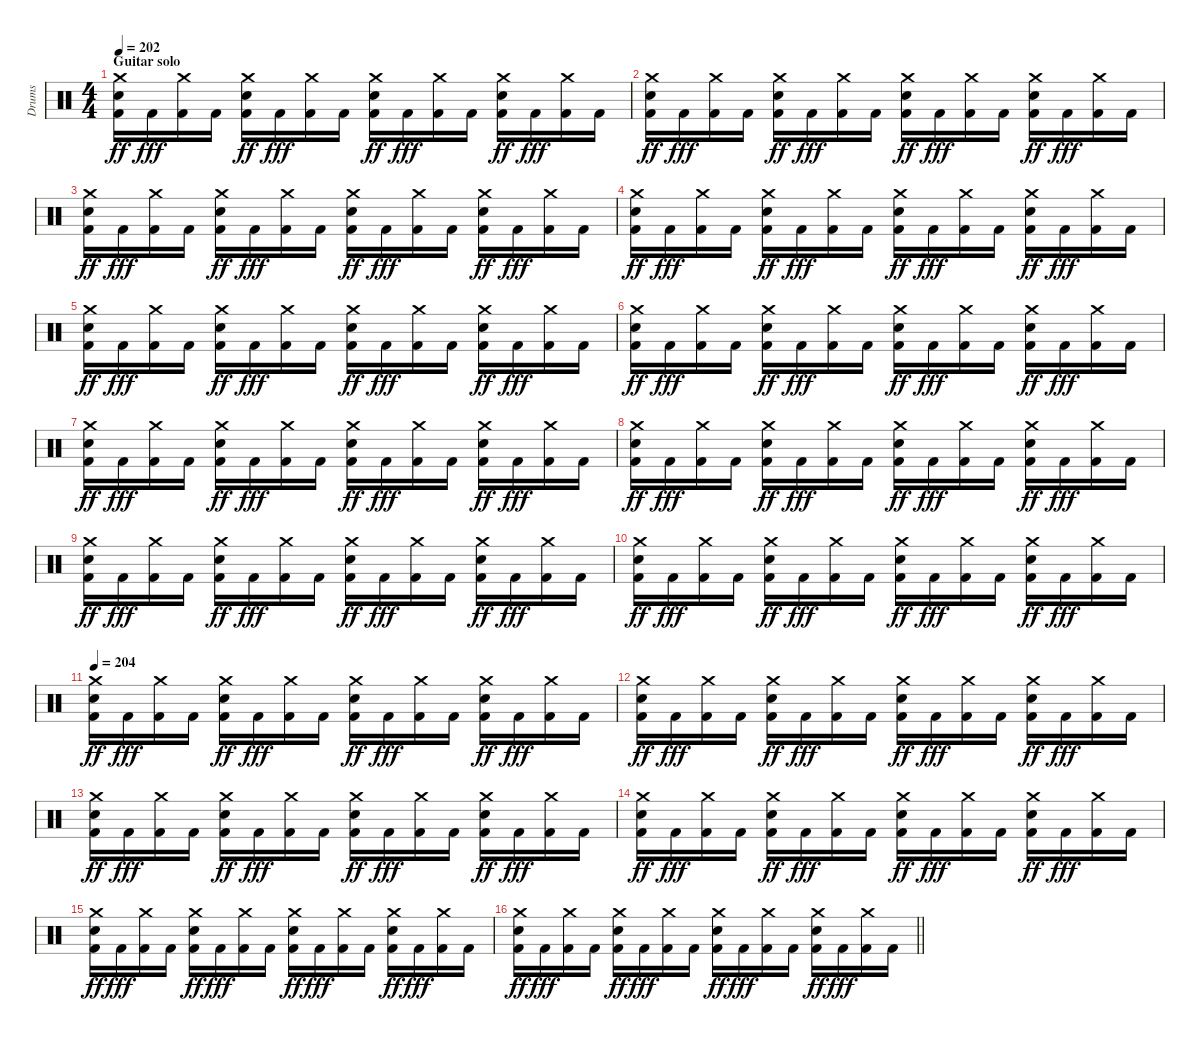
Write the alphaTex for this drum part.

\track ("Drums" "Drums") {instrument percussion}
\staff {score}
\articulation defaults
\ts (4 4)
\section ("" "Guitar solo")
\tempo 202
\clef neutral
\ks c
("Kick (hit) 2" "Snare (hit) 2" "Crash medium (hit)").16{dy ff} "Kick (hit) 2".16{dy fff} ("Kick (hit) 2" "Crash medium (hit)").16 "Kick (hit) 2".16 ("Kick (hit) 2" "Snare (hit) 2" "Crash medium (hit)").16{dy ff} "Kick (hit) 2".16{dy fff} ("Kick (hit) 2" "Crash medium (hit)").16 "Kick (hit) 2".16 ("Kick (hit) 2" "Snare (hit) 2" "Crash medium (hit)").16{dy ff} "Kick (hit) 2".16{dy fff} ("Kick (hit) 2" "Crash medium (hit)").16 "Kick (hit) 2".16 ("Kick (hit) 2" "Snare (hit) 2" "Crash medium (hit)").16{dy ff} "Kick (hit) 2".16{dy fff} ("Kick (hit) 2" "Crash medium (hit)").16 "Kick (hit) 2".16 |
("Kick (hit) 2" "Snare (hit) 2" "Crash medium (hit)").16{dy ff} "Kick (hit) 2".16{dy fff} ("Kick (hit) 2" "Crash medium (hit)").16 "Kick (hit) 2".16 ("Kick (hit) 2" "Snare (hit) 2" "Crash medium (hit)").16{dy ff} "Kick (hit) 2".16{dy fff} ("Kick (hit) 2" "Crash medium (hit)").16 "Kick (hit) 2".16 ("Kick (hit) 2" "Snare (hit) 2" "Crash medium (hit)").16{dy ff} "Kick (hit) 2".16{dy fff} ("Kick (hit) 2" "Crash medium (hit)").16 "Kick (hit) 2".16 ("Kick (hit) 2" "Snare (hit) 2" "Crash medium (hit)").16{dy ff} "Kick (hit) 2".16{dy fff} ("Kick (hit) 2" "Crash medium (hit)").16 "Kick (hit) 2".16 |
("Kick (hit) 2" "Snare (hit) 2" "Crash medium (hit)").16{dy ff} "Kick (hit) 2".16{dy fff} ("Kick (hit) 2" "Crash medium (hit)").16 "Kick (hit) 2".16 ("Kick (hit) 2" "Snare (hit) 2" "Crash medium (hit)").16{dy ff} "Kick (hit) 2".16{dy fff} ("Kick (hit) 2" "Crash medium (hit)").16 "Kick (hit) 2".16 ("Kick (hit) 2" "Snare (hit) 2" "Crash medium (hit)").16{dy ff} "Kick (hit) 2".16{dy fff} ("Kick (hit) 2" "Crash medium (hit)").16 "Kick (hit) 2".16 ("Kick (hit) 2" "Snare (hit) 2" "Crash medium (hit)").16{dy ff} "Kick (hit) 2".16{dy fff} ("Kick (hit) 2" "Crash medium (hit)").16 "Kick (hit) 2".16 |
("Kick (hit) 2" "Snare (hit) 2" "Crash medium (hit)").16{dy ff} "Kick (hit) 2".16{dy fff} ("Kick (hit) 2" "Crash medium (hit)").16 "Kick (hit) 2".16 ("Kick (hit) 2" "Snare (hit) 2" "Crash medium (hit)").16{dy ff} "Kick (hit) 2".16{dy fff} ("Kick (hit) 2" "Crash medium (hit)").16 "Kick (hit) 2".16 ("Kick (hit) 2" "Snare (hit) 2" "Crash medium (hit)").16{dy ff} "Kick (hit) 2".16{dy fff} ("Kick (hit) 2" "Crash medium (hit)").16 "Kick (hit) 2".16 ("Kick (hit) 2" "Snare (hit) 2" "Crash medium (hit)").16{dy ff} "Kick (hit) 2".16{dy fff} ("Kick (hit) 2" "Crash medium (hit)").16 "Kick (hit) 2".16 |
("Kick (hit) 2" "Snare (hit) 2" "Crash medium (hit)").16{dy ff} "Kick (hit) 2".16{dy fff} ("Kick (hit) 2" "Crash medium (hit)").16 "Kick (hit) 2".16 ("Kick (hit) 2" "Snare (hit) 2" "Crash medium (hit)").16{dy ff} "Kick (hit) 2".16{dy fff} ("Kick (hit) 2" "Crash medium (hit)").16 "Kick (hit) 2".16 ("Kick (hit) 2" "Snare (hit) 2" "Crash medium (hit)").16{dy ff} "Kick (hit) 2".16{dy fff} ("Kick (hit) 2" "Crash medium (hit)").16 "Kick (hit) 2".16 ("Kick (hit) 2" "Snare (hit) 2" "Crash medium (hit)").16{dy ff} "Kick (hit) 2".16{dy fff} ("Kick (hit) 2" "Crash medium (hit)").16 "Kick (hit) 2".16 |
("Kick (hit) 2" "Snare (hit) 2" "Crash medium (hit)").16{dy ff} "Kick (hit) 2".16{dy fff} ("Kick (hit) 2" "Crash medium (hit)").16 "Kick (hit) 2".16 ("Kick (hit) 2" "Snare (hit) 2" "Crash medium (hit)").16{dy ff} "Kick (hit) 2".16{dy fff} ("Kick (hit) 2" "Crash medium (hit)").16 "Kick (hit) 2".16 ("Kick (hit) 2" "Snare (hit) 2" "Crash medium (hit)").16{dy ff} "Kick (hit) 2".16{dy fff} ("Kick (hit) 2" "Crash medium (hit)").16 "Kick (hit) 2".16 ("Kick (hit) 2" "Snare (hit) 2" "Crash medium (hit)").16{dy ff} "Kick (hit) 2".16{dy fff} ("Kick (hit) 2" "Crash medium (hit)").16 "Kick (hit) 2".16 |
("Kick (hit) 2" "Snare (hit) 2" "Crash medium (hit)").16{dy ff} "Kick (hit) 2".16{dy fff} ("Kick (hit) 2" "Crash medium (hit)").16 "Kick (hit) 2".16 ("Kick (hit) 2" "Snare (hit) 2" "Crash medium (hit)").16{dy ff} "Kick (hit) 2".16{dy fff} ("Kick (hit) 2" "Crash medium (hit)").16 "Kick (hit) 2".16 ("Kick (hit) 2" "Snare (hit) 2" "Crash medium (hit)").16{dy ff} "Kick (hit) 2".16{dy fff} ("Kick (hit) 2" "Crash medium (hit)").16 "Kick (hit) 2".16 ("Kick (hit) 2" "Snare (hit) 2" "Crash medium (hit)").16{dy ff} "Kick (hit) 2".16{dy fff} ("Kick (hit) 2" "Crash medium (hit)").16 "Kick (hit) 2".16 |
("Kick (hit) 2" "Snare (hit) 2" "Crash medium (hit)").16{dy ff} "Kick (hit) 2".16{dy fff} ("Kick (hit) 2" "Crash medium (hit)").16 "Kick (hit) 2".16 ("Kick (hit) 2" "Snare (hit) 2" "Crash medium (hit)").16{dy ff} "Kick (hit) 2".16{dy fff} ("Kick (hit) 2" "Crash medium (hit)").16 "Kick (hit) 2".16 ("Kick (hit) 2" "Snare (hit) 2" "Crash medium (hit)").16{dy ff} "Kick (hit) 2".16{dy fff} ("Kick (hit) 2" "Crash medium (hit)").16 "Kick (hit) 2".16 ("Kick (hit) 2" "Snare (hit) 2" "Crash medium (hit)").16{dy ff} "Kick (hit) 2".16{dy fff} ("Kick (hit) 2" "Crash medium (hit)").16 "Kick (hit) 2".16 |
("Kick (hit) 2" "Snare (hit) 2" "Crash medium (hit)").16{dy ff} "Kick (hit) 2".16{dy fff} ("Kick (hit) 2" "Crash medium (hit)").16 "Kick (hit) 2".16 ("Kick (hit) 2" "Snare (hit) 2" "Crash medium (hit)").16{dy ff} "Kick (hit) 2".16{dy fff} ("Kick (hit) 2" "Crash medium (hit)").16 "Kick (hit) 2".16 ("Kick (hit) 2" "Snare (hit) 2" "Crash medium (hit)").16{dy ff} "Kick (hit) 2".16{dy fff} ("Kick (hit) 2" "Crash medium (hit)").16 "Kick (hit) 2".16 ("Kick (hit) 2" "Snare (hit) 2" "Crash medium (hit)").16{dy ff} "Kick (hit) 2".16{dy fff} ("Kick (hit) 2" "Crash medium (hit)").16 "Kick (hit) 2".16 |
("Kick (hit) 2" "Snare (hit) 2" "Crash medium (hit)").16{dy ff} "Kick (hit) 2".16{dy fff} ("Kick (hit) 2" "Crash medium (hit)").16 "Kick (hit) 2".16 ("Kick (hit) 2" "Snare (hit) 2" "Crash medium (hit)").16{dy ff} "Kick (hit) 2".16{dy fff} ("Kick (hit) 2" "Crash medium (hit)").16 "Kick (hit) 2".16 ("Kick (hit) 2" "Snare (hit) 2" "Crash medium (hit)").16{dy ff} "Kick (hit) 2".16{dy fff} ("Kick (hit) 2" "Crash medium (hit)").16 "Kick (hit) 2".16 ("Kick (hit) 2" "Snare (hit) 2" "Crash medium (hit)").16{dy ff} "Kick (hit) 2".16{dy fff} ("Kick (hit) 2" "Crash medium (hit)").16 "Kick (hit) 2".16 |
\tempo 204
("Kick (hit) 2" "Snare (hit) 2" "Crash medium (hit)").16{dy ff} "Kick (hit) 2".16{dy fff} ("Kick (hit) 2" "Crash medium (hit)").16 "Kick (hit) 2".16 ("Kick (hit) 2" "Snare (hit) 2" "Crash medium (hit)").16{dy ff} "Kick (hit) 2".16{dy fff} ("Kick (hit) 2" "Crash medium (hit)").16 "Kick (hit) 2".16 ("Kick (hit) 2" "Snare (hit) 2" "Crash medium (hit)").16{dy ff} "Kick (hit) 2".16{dy fff} ("Kick (hit) 2" "Crash medium (hit)").16 "Kick (hit) 2".16 ("Kick (hit) 2" "Snare (hit) 2" "Crash medium (hit)").16{dy ff} "Kick (hit) 2".16{dy fff} ("Kick (hit) 2" "Crash medium (hit)").16 "Kick (hit) 2".16 |
("Kick (hit) 2" "Snare (hit) 2" "Crash medium (hit)").16{dy ff} "Kick (hit) 2".16{dy fff} ("Kick (hit) 2" "Crash medium (hit)").16 "Kick (hit) 2".16 ("Kick (hit) 2" "Snare (hit) 2" "Crash medium (hit)").16{dy ff} "Kick (hit) 2".16{dy fff} ("Kick (hit) 2" "Crash medium (hit)").16 "Kick (hit) 2".16 ("Kick (hit) 2" "Snare (hit) 2" "Crash medium (hit)").16{dy ff} "Kick (hit) 2".16{dy fff} ("Kick (hit) 2" "Crash medium (hit)").16 "Kick (hit) 2".16 ("Kick (hit) 2" "Snare (hit) 2" "Crash medium (hit)").16{dy ff} "Kick (hit) 2".16{dy fff} ("Kick (hit) 2" "Crash medium (hit)").16 "Kick (hit) 2".16 |
("Kick (hit) 2" "Snare (hit) 2" "Crash medium (hit)").16{dy ff} "Kick (hit) 2".16{dy fff} ("Kick (hit) 2" "Crash medium (hit)").16 "Kick (hit) 2".16 ("Kick (hit) 2" "Snare (hit) 2" "Crash medium (hit)").16{dy ff} "Kick (hit) 2".16{dy fff} ("Kick (hit) 2" "Crash medium (hit)").16 "Kick (hit) 2".16 ("Kick (hit) 2" "Snare (hit) 2" "Crash medium (hit)").16{dy ff} "Kick (hit) 2".16{dy fff} ("Kick (hit) 2" "Crash medium (hit)").16 "Kick (hit) 2".16 ("Kick (hit) 2" "Snare (hit) 2" "Crash medium (hit)").16{dy ff} "Kick (hit) 2".16{dy fff} ("Kick (hit) 2" "Crash medium (hit)").16 "Kick (hit) 2".16 |
("Kick (hit) 2" "Snare (hit) 2" "Crash medium (hit)").16{dy ff} "Kick (hit) 2".16{dy fff} ("Kick (hit) 2" "Crash medium (hit)").16 "Kick (hit) 2".16 ("Kick (hit) 2" "Snare (hit) 2" "Crash medium (hit)").16{dy ff} "Kick (hit) 2".16{dy fff} ("Kick (hit) 2" "Crash medium (hit)").16 "Kick (hit) 2".16 ("Kick (hit) 2" "Snare (hit) 2" "Crash medium (hit)").16{dy ff} "Kick (hit) 2".16{dy fff} ("Kick (hit) 2" "Crash medium (hit)").16 "Kick (hit) 2".16 ("Kick (hit) 2" "Snare (hit) 2" "Crash medium (hit)").16{dy ff} "Kick (hit) 2".16{dy fff} ("Kick (hit) 2" "Crash medium (hit)").16 "Kick (hit) 2".16 |
("Kick (hit) 2" "Snare (hit) 2" "Crash medium (hit)").16{dy ff} "Kick (hit) 2".16{dy fff} ("Kick (hit) 2" "Crash medium (hit)").16 "Kick (hit) 2".16 ("Kick (hit) 2" "Snare (hit) 2" "Crash medium (hit)").16{dy ff} "Kick (hit) 2".16{dy fff} ("Kick (hit) 2" "Crash medium (hit)").16 "Kick (hit) 2".16 ("Kick (hit) 2" "Snare (hit) 2" "Crash medium (hit)").16{dy ff} "Kick (hit) 2".16{dy fff} ("Kick (hit) 2" "Crash medium (hit)").16 "Kick (hit) 2".16 ("Kick (hit) 2" "Snare (hit) 2" "Crash medium (hit)").16{dy ff} "Kick (hit) 2".16{dy fff} ("Kick (hit) 2" "Crash medium (hit)").16 "Kick (hit) 2".16 |
\barLineRight lightlight
("Kick (hit) 2" "Snare (hit) 2" "Crash medium (hit)").16{dy ff} "Kick (hit) 2".16{dy fff} ("Kick (hit) 2" "Crash medium (hit)").16 "Kick (hit) 2".16 ("Kick (hit) 2" "Snare (hit) 2" "Crash medium (hit)").16{dy ff} "Kick (hit) 2".16{dy fff} ("Kick (hit) 2" "Crash medium (hit)").16 "Kick (hit) 2".16 ("Kick (hit) 2" "Snare (hit) 2" "Crash medium (hit)").16{dy ff} "Kick (hit) 2".16{dy fff} ("Kick (hit) 2" "Crash medium (hit)").16 "Kick (hit) 2".16 ("Kick (hit) 2" "Snare (hit) 2" "Crash medium (hit)").16{dy ff} "Kick (hit) 2".16{dy fff} ("Kick (hit) 2" "Crash medium (hit)").16 "Kick (hit) 2".16
